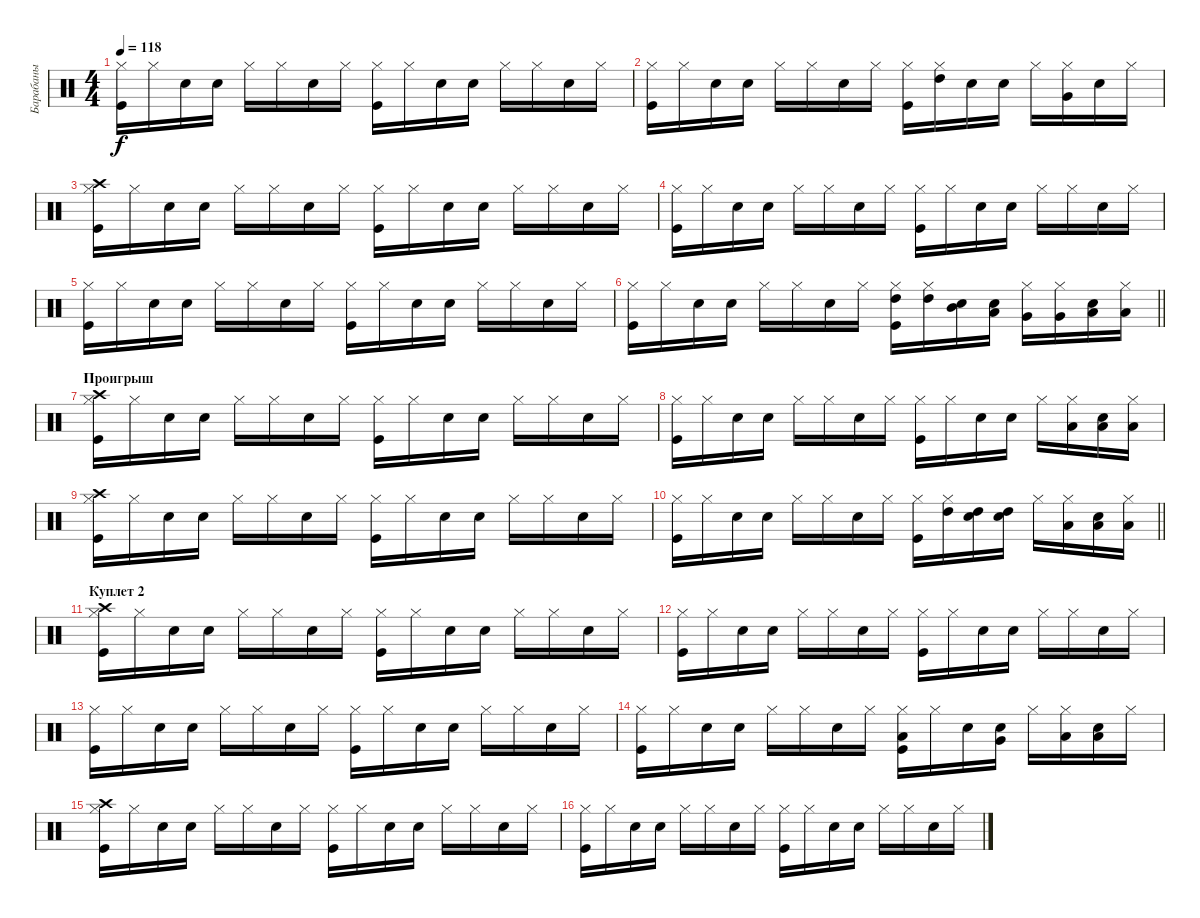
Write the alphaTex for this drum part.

\track ("Барабаны" "Барабаны") {instrument percussion}
\staff {score}
\articulation defaults
\ts (4 4)
\tempo 118
\clef neutral
\ks c
("Kick (hit)" "Hi-Hat (closed)").16{dy f} "Hi-Hat (closed)".16 "Snare (hit) 2".16 "Snare (hit) 2".16 "Hi-Hat (closed)".16 "Hi-Hat (closed)".16 "Snare (hit) 2".16 "Hi-Hat (closed)".16 ("Kick (hit)" "Hi-Hat (closed)").16 "Hi-Hat (closed)".16 "Snare (hit) 2".16 "Snare (hit) 2".16 "Hi-Hat (closed)".16 "Hi-Hat (closed)".16 "Snare (hit) 2".16 "Hi-Hat (closed)".16 |
("Kick (hit)" "Hi-Hat (closed)").16 "Hi-Hat (closed)".16 "Snare (hit) 2".16 "Snare (hit) 2".16 "Hi-Hat (closed)".16 "Hi-Hat (closed)".16 "Snare (hit) 2".16 "Hi-Hat (closed)".16 ("Kick (hit)" "Hi-Hat (closed)").16 ("Hi-Hat (closed)" "High Tom (hit)").16 "Snare (hit) 2".16 "Snare (hit) 2".16 "Hi-Hat (closed)".16 ("Hi-Hat (closed)" "Very Low Tom (hit)").16 "Snare (hit) 2".16 "Hi-Hat (closed)".16 |
("Kick (hit)" "Hi-Hat (closed)" "Crash high (hit)").16 "Hi-Hat (closed)".16 "Snare (hit) 2".16 "Snare (hit) 2".16 "Hi-Hat (closed)".16 "Hi-Hat (closed)".16 "Snare (hit) 2".16 "Hi-Hat (closed)".16 ("Kick (hit)" "Hi-Hat (closed)").16 "Hi-Hat (closed)".16 "Snare (hit) 2".16 "Snare (hit) 2".16 "Hi-Hat (closed)".16 "Hi-Hat (closed)".16 "Snare (hit) 2".16 "Hi-Hat (closed)".16 |
("Kick (hit)" "Hi-Hat (closed)").16 "Hi-Hat (closed)".16 "Snare (hit) 2".16 "Snare (hit) 2".16 "Hi-Hat (closed)".16 "Hi-Hat (closed)".16 "Snare (hit) 2".16 "Hi-Hat (closed)".16 ("Kick (hit)" "Hi-Hat (closed)").16 "Hi-Hat (closed)".16 "Snare (hit) 2".16 "Snare (hit) 2".16 "Hi-Hat (closed)".16 "Hi-Hat (closed)".16 "Snare (hit) 2".16 "Hi-Hat (closed)".16 |
("Kick (hit)" "Hi-Hat (closed)").16 "Hi-Hat (closed)".16 "Snare (hit) 2".16 "Snare (hit) 2".16 "Hi-Hat (closed)".16 "Hi-Hat (closed)".16 "Snare (hit) 2".16 "Hi-Hat (closed)".16 ("Kick (hit)" "Hi-Hat (closed)").16 "Hi-Hat (closed)".16 "Snare (hit) 2".16 "Snare (hit) 2".16 "Hi-Hat (closed)".16 "Hi-Hat (closed)".16 "Snare (hit) 2".16 "Hi-Hat (closed)".16 |
\barLineRight lightlight
("Kick (hit)" "Hi-Hat (closed)").16 "Hi-Hat (closed)".16 "Snare (hit) 2".16 "Snare (hit) 2".16 "Hi-Hat (closed)".16 "Hi-Hat (closed)".16 "Snare (hit) 2".16 "Hi-Hat (closed)".16 ("Kick (hit)" "Hi-Hat (closed)" "High Tom (hit)").16 ("Hi-Hat (closed)" "High Tom (hit)").16 ("Snare (hit) 2" "Mid Tom (hit)").16 ("Snare (hit) 2" "Low Tom (hit)").16 ("Hi-Hat (closed)" "Very Low Tom (hit)").16 ("Hi-Hat (closed)" "Very Low Tom (hit)").16 ("Snare (hit) 2" "Low Floor Tom (hit)").16 ("Hi-Hat (closed)" "Low Floor Tom (hit)").16 |
\section ("" "Проигрыш")
("Kick (hit)" "Hi-Hat (closed)" "Crash high (hit)").16 "Hi-Hat (closed)".16 "Snare (hit) 2".16 "Snare (hit) 2".16 "Hi-Hat (closed)".16 "Hi-Hat (closed)".16 "Snare (hit) 2".16 "Hi-Hat (closed)".16 ("Kick (hit)" "Hi-Hat (closed)").16 "Hi-Hat (closed)".16 "Snare (hit) 2".16 "Snare (hit) 2".16 "Hi-Hat (closed)".16 "Hi-Hat (closed)".16 "Snare (hit) 2".16 "Hi-Hat (closed)".16 |
("Kick (hit)" "Hi-Hat (closed)").16 "Hi-Hat (closed)".16 "Snare (hit) 2".16 "Snare (hit) 2".16 "Hi-Hat (closed)".16 "Hi-Hat (closed)".16 "Snare (hit) 2".16 "Hi-Hat (closed)".16 ("Kick (hit)" "Hi-Hat (closed)").16 "Hi-Hat (closed)".16 "Snare (hit) 2".16 "Snare (hit) 2".16 "Hi-Hat (closed)".16 ("Hi-Hat (closed)" "Low Tom (hit)").16 ("Snare (hit) 2" "Low Tom (hit)").16 ("Hi-Hat (closed)" "Low Tom (hit)").16 |
("Kick (hit)" "Hi-Hat (closed)" "Crash high (hit)").16 "Hi-Hat (closed)".16 "Snare (hit) 2".16 "Snare (hit) 2".16 "Hi-Hat (closed)".16 "Hi-Hat (closed)".16 "Snare (hit) 2".16 "Hi-Hat (closed)".16 ("Kick (hit)" "Hi-Hat (closed)").16 "Hi-Hat (closed)".16 "Snare (hit) 2".16 "Snare (hit) 2".16 "Hi-Hat (closed)".16 "Hi-Hat (closed)".16 "Snare (hit) 2".16 "Hi-Hat (closed)".16 |
\barLineRight lightlight
("Kick (hit)" "Hi-Hat (closed)").16 "Hi-Hat (closed)".16 "Snare (hit) 2".16 "Snare (hit) 2".16 "Hi-Hat (closed)".16 "Hi-Hat (closed)".16 "Snare (hit) 2".16 "Hi-Hat (closed)".16 ("Kick (hit)" "Hi-Hat (closed)").16 ("Hi-Hat (closed)" "High Tom (hit)").16 ("Snare (hit) 2" "High Tom (hit)").16 ("Snare (hit) 2" "High Tom (hit)").16 "Hi-Hat (closed)".16 ("Hi-Hat (closed)" "Low Tom (hit)").16 ("Snare (hit) 2" "Low Tom (hit)").16 ("Hi-Hat (closed)" "Low Tom (hit)").16 |
\section ("" "Куплет 2")
("Kick (hit)" "Hi-Hat (closed)" "Crash high (hit)").16 "Hi-Hat (closed)".16 "Snare (hit) 2".16 "Snare (hit) 2".16 "Hi-Hat (closed)".16 "Hi-Hat (closed)".16 "Snare (hit) 2".16 "Hi-Hat (closed)".16 ("Kick (hit)" "Hi-Hat (closed)").16 "Hi-Hat (closed)".16 "Snare (hit) 2".16 "Snare (hit) 2".16 "Hi-Hat (closed)".16 "Hi-Hat (closed)".16 "Snare (hit) 2".16 "Hi-Hat (closed)".16 |
("Kick (hit)" "Hi-Hat (closed)").16 "Hi-Hat (closed)".16 "Snare (hit) 2".16 "Snare (hit) 2".16 "Hi-Hat (closed)".16 "Hi-Hat (closed)".16 "Snare (hit) 2".16 "Hi-Hat (closed)".16 ("Kick (hit)" "Hi-Hat (closed)").16 "Hi-Hat (closed)".16 "Snare (hit) 2".16 "Snare (hit) 2".16 "Hi-Hat (closed)".16 "Hi-Hat (closed)".16 "Snare (hit) 2".16 "Hi-Hat (closed)".16 |
("Kick (hit)" "Hi-Hat (closed)").16 "Hi-Hat (closed)".16 "Snare (hit) 2".16 "Snare (hit) 2".16 "Hi-Hat (closed)".16 "Hi-Hat (closed)".16 "Snare (hit) 2".16 "Hi-Hat (closed)".16 ("Kick (hit)" "Hi-Hat (closed)").16 "Hi-Hat (closed)".16 "Snare (hit) 2".16 "Snare (hit) 2".16 "Hi-Hat (closed)".16 "Hi-Hat (closed)".16 "Snare (hit) 2".16 "Hi-Hat (closed)".16 |
("Kick (hit)" "Hi-Hat (closed)").16 "Hi-Hat (closed)".16 "Snare (hit) 2".16 "Snare (hit) 2".16 "Hi-Hat (closed)".16 "Hi-Hat (closed)".16 "Snare (hit) 2".16 "Hi-Hat (closed)".16 ("Kick (hit)" "Hi-Hat (closed)" "Low Floor Tom (hit)").16 "Hi-Hat (closed)".16 "Snare (hit) 2".16 ("Snare (hit) 2" "Very Low Tom (hit)").16 "Hi-Hat (closed)".16 ("Hi-Hat (closed)" "Low Tom (hit)").16 ("Snare (hit) 2" "Low Tom (hit)").16 "Hi-Hat (closed)".16 |
("Kick (hit)" "Hi-Hat (closed)" "Crash high (hit)").16 "Hi-Hat (closed)".16 "Snare (hit) 2".16 "Snare (hit) 2".16 "Hi-Hat (closed)".16 "Hi-Hat (closed)".16 "Snare (hit) 2".16 "Hi-Hat (closed)".16 ("Kick (hit)" "Hi-Hat (closed)").16 "Hi-Hat (closed)".16 "Snare (hit) 2".16 "Snare (hit) 2".16 "Hi-Hat (closed)".16 "Hi-Hat (closed)".16 "Snare (hit) 2".16 "Hi-Hat (closed)".16 |
("Kick (hit)" "Hi-Hat (closed)").16 "Hi-Hat (closed)".16 "Snare (hit) 2".16 "Snare (hit) 2".16 "Hi-Hat (closed)".16 "Hi-Hat (closed)".16 "Snare (hit) 2".16 "Hi-Hat (closed)".16 ("Kick (hit)" "Hi-Hat (closed)").16 "Hi-Hat (closed)".16 "Snare (hit) 2".16 "Snare (hit) 2".16 "Hi-Hat (closed)".16 "Hi-Hat (closed)".16 "Snare (hit) 2".16 "Hi-Hat (closed)".16
